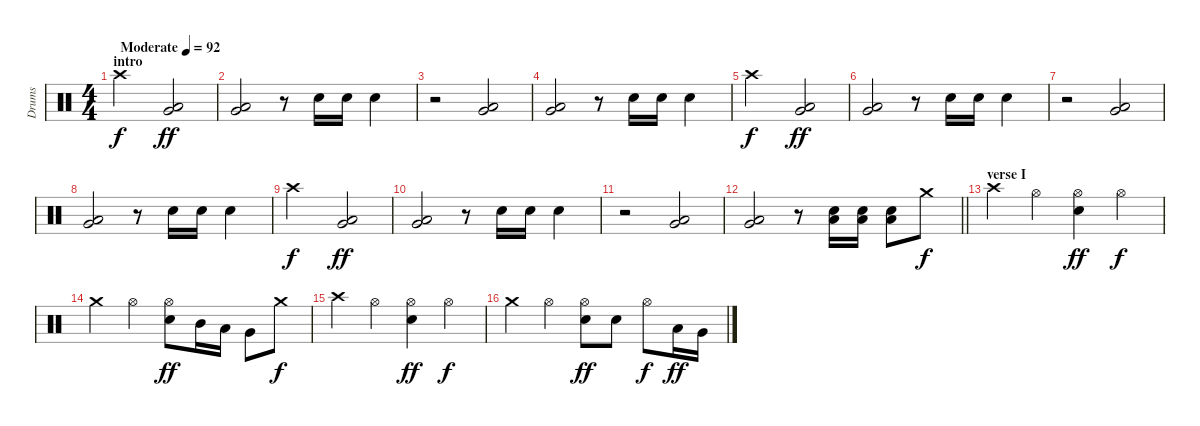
\track ("Drums" "Drums") {instrument percussion}
\staff {score}
\articulation defaults
\ts (4 4)
\section ("" "intro")
\tempo (92 "Moderate")
\clef neutral
\ks c "Crash high (hit)".2{dy f}
("Low Tom (hit)" "Very Low Tom (hit)").2{dy ff} |
("Very Low Tom (hit)" "Low Floor Tom (hit)").2 r.8 "Snare (hit) 2".16 "Snare (hit) 2".16 "Snare (hit) 2".4 |
r.2 ("Low Tom (hit)" "Very Low Tom (hit)").2 |
("Very Low Tom (hit)" "Low Floor Tom (hit)").2 r.8 "Snare (hit) 2".16 "Snare (hit) 2".16 "Snare (hit) 2".4 |
"Crash high (hit)".2{dy f} ("Low Tom (hit)" "Very Low Tom (hit)").2{dy ff} |
("Very Low Tom (hit)" "Low Floor Tom (hit)").2 r.8 "Snare (hit) 2".16 "Snare (hit) 2".16 "Snare (hit) 2".4 |
r.2 ("Low Tom (hit)" "Very Low Tom (hit)").2 |
("Very Low Tom (hit)" "Low Floor Tom (hit)").2 r.8 "Snare (hit) 2".16 "Snare (hit) 2".16 "Snare (hit) 2".4 |
"Crash high (hit)".2{dy f} ("Low Tom (hit)" "Very Low Tom (hit)").2{dy ff} |
("Very Low Tom (hit)" "Low Floor Tom (hit)").2 r.8 "Snare (hit) 2".16 "Snare (hit) 2".16 "Snare (hit) 2".4 |
r.2 ("Low Tom (hit)" "Very Low Tom (hit)").2 |
\barLineRight lightlight
("Very Low Tom (hit)" "Low Floor Tom (hit)").2 r.8 ("Snare (hit) 2" "Low Floor Tom (hit)").16 ("Snare (hit) 2" "Low Floor Tom (hit)").16 ("Snare (hit) 2" "Low Floor Tom (hit)").8 "Crash medium (hit)".8{dy f} |
\section ("" "verse I")
"Crash high (hit)".4 "Hi-Hat (open)".4 ("Hi-Hat (open)" "Snare (hit) 2").4{dy ff} "Hi-Hat (open)".4{dy f} |
"Crash medium (hit)".4 "Hi-Hat (open)".4 ("Hi-Hat (open)" "Snare (hit) 2").8{dy ff} "Mid Tom (hit)".16 "Low Tom (hit)".16 "Very Low Tom (hit)".8 "Crash medium (hit)".8{dy f} |
"Crash high (hit)".4 "Hi-Hat (open)".4 ("Hi-Hat (open)" "Snare (hit) 2").4{dy ff} "Hi-Hat (open)".4{dy f} |
"Crash medium (hit)".4 "Hi-Hat (open)".4 ("Hi-Hat (open)" "Snare (hit) 2").8{dy ff} "Snare (hit) 2".8 "Hi-Hat (open)".8{dy f} "Low Tom (hit)".16{dy ff} "Very Low Tom (hit)".16
